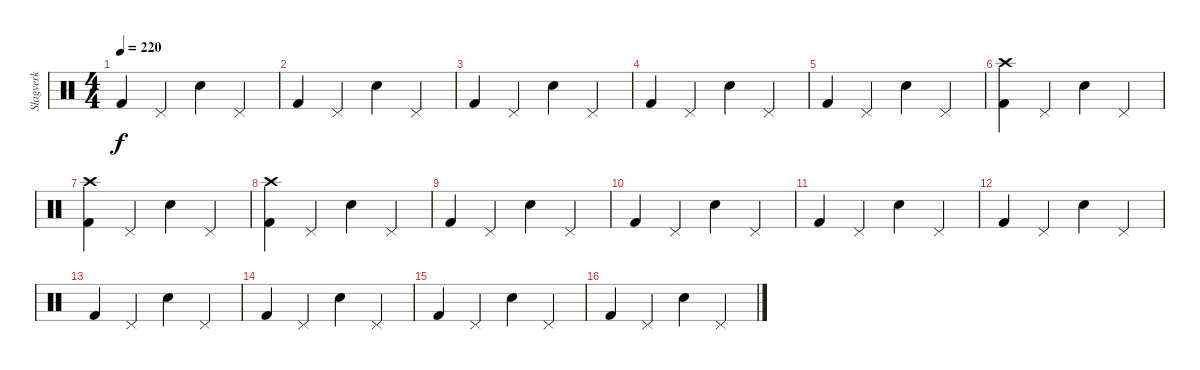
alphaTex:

\track ("Slagverk" "Slagverk") {instrument percussion}
\staff {score}
\articulation defaults
\ts (4 4)
\tempo 220
\clef neutral
\ks c "Kick (hit) 2".4{dy f} "Pedal Hi-Hat (hit)".4 "Snare (hit) 2".4 "Pedal Hi-Hat (hit)".4
|
"Kick (hit) 2".4 "Pedal Hi-Hat (hit)".4 "Snare (hit) 2".4 "Pedal Hi-Hat (hit)".4 |
"Kick (hit) 2".4 "Pedal Hi-Hat (hit)".4 "Snare (hit) 2".4 "Pedal Hi-Hat (hit)".4 |
"Kick (hit) 2".4 "Pedal Hi-Hat (hit)".4 "Snare (hit) 2".4 "Pedal Hi-Hat (hit)".4 |
"Kick (hit) 2".4 "Pedal Hi-Hat (hit)".4 "Snare (hit) 2".4 "Pedal Hi-Hat (hit)".4 |
("Crash high (hit)" "Kick (hit) 2").4 "Pedal Hi-Hat (hit)".4 "Snare (hit) 2".4 "Pedal Hi-Hat (hit)".4 |
("Crash high (hit)" "Kick (hit) 2").4 "Pedal Hi-Hat (hit)".4 "Snare (hit) 2".4 "Pedal Hi-Hat (hit)".4 |
("Crash high (hit)" "Kick (hit) 2").4 "Pedal Hi-Hat (hit)".4 "Snare (hit) 2".4 "Pedal Hi-Hat (hit)".4 |
"Kick (hit) 2".4 "Pedal Hi-Hat (hit)".4 "Snare (hit) 2".4 "Pedal Hi-Hat (hit)".4 |
"Kick (hit) 2".4 "Pedal Hi-Hat (hit)".4 "Snare (hit) 2".4 "Pedal Hi-Hat (hit)".4 |
"Kick (hit) 2".4 "Pedal Hi-Hat (hit)".4 "Snare (hit) 2".4 "Pedal Hi-Hat (hit)".4 |
"Kick (hit) 2".4 "Pedal Hi-Hat (hit)".4 "Snare (hit) 2".4 "Pedal Hi-Hat (hit)".4 |
"Kick (hit) 2".4 "Pedal Hi-Hat (hit)".4 "Snare (hit) 2".4 "Pedal Hi-Hat (hit)".4 |
"Kick (hit) 2".4 "Pedal Hi-Hat (hit)".4 "Snare (hit) 2".4 "Pedal Hi-Hat (hit)".4 |
"Kick (hit) 2".4 "Pedal Hi-Hat (hit)".4 "Snare (hit) 2".4 "Pedal Hi-Hat (hit)".4 |
"Kick (hit) 2".4 "Pedal Hi-Hat (hit)".4 "Snare (hit) 2".4 "Pedal Hi-Hat (hit)".4
